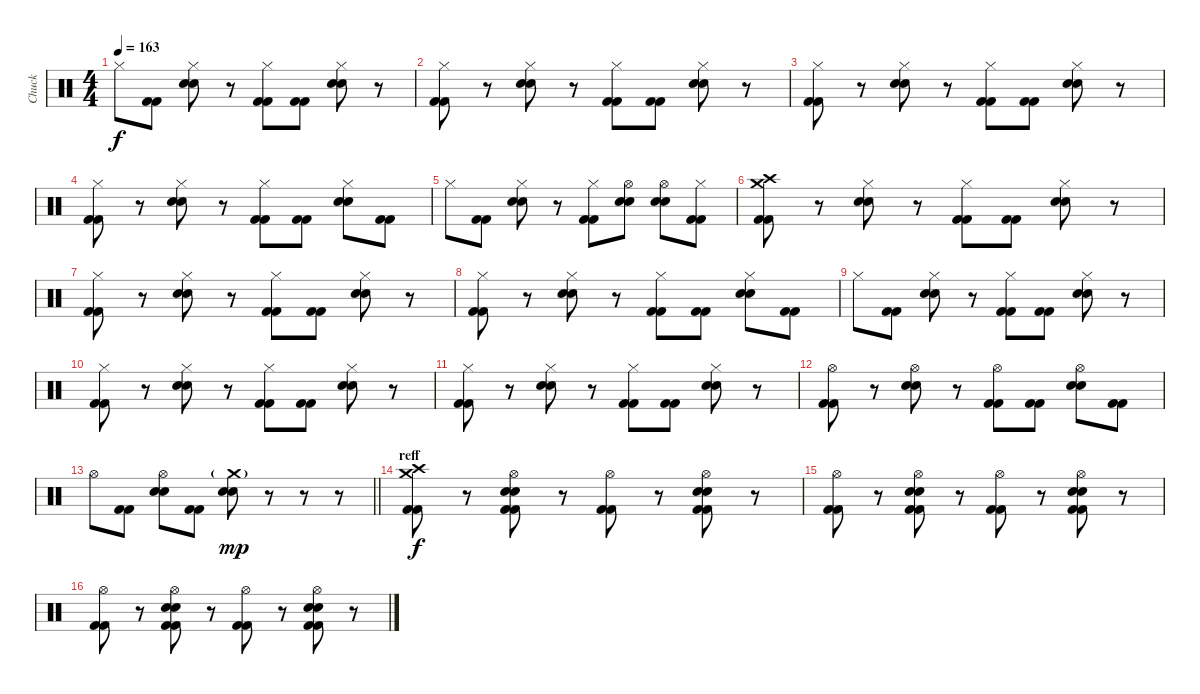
\track ("Chuck" "Chuck") {instrument percussion}
\staff {score}
\articulation defaults
\ts (4 4)
\tempo 163
\clef neutral
\ks c "Hi-Hat (closed)".8{dy f}
("Kick (hit) 2" "Kick (hit) 2").8 ("Hi-Hat (closed)" "Snare (hit) 2" "Snare (hit) 2").8 r.8 ("Hi-Hat (closed)" "Kick (hit) 2" "Kick (hit) 2").8 ("Kick (hit) 2" "Kick (hit) 2").8 ("Hi-Hat (closed)" "Snare (hit) 2" "Snare (hit) 2").8 r.8 |
("Hi-Hat (closed)" "Kick (hit) 2" "Kick (hit) 2").8 r.8 ("Hi-Hat (closed)" "Snare (hit) 2" "Snare (hit) 2").8 r.8 ("Hi-Hat (closed)" "Kick (hit) 2" "Kick (hit) 2").8 ("Kick (hit) 2" "Kick (hit) 2").8 ("Hi-Hat (closed)" "Snare (hit) 2" "Snare (hit) 2").8 r.8 |
("Hi-Hat (closed)" "Kick (hit) 2" "Kick (hit) 2").8 r.8 ("Hi-Hat (closed)" "Snare (hit) 2" "Snare (hit) 2").8 r.8 ("Hi-Hat (closed)" "Kick (hit) 2" "Kick (hit) 2").8 ("Kick (hit) 2" "Kick (hit) 2").8 ("Hi-Hat (closed)" "Snare (hit) 2" "Snare (hit) 2").8 r.8 |
("Hi-Hat (closed)" "Kick (hit) 2" "Kick (hit) 2").8 r.8 ("Hi-Hat (closed)" "Snare (hit) 2" "Snare (hit) 2").8 r.8 ("Hi-Hat (closed)" "Kick (hit) 2" "Kick (hit) 2").8 ("Kick (hit) 2" "Kick (hit) 2").8 ("Hi-Hat (closed)" "Snare (hit) 2" "Snare (hit) 2").8 ("Kick (hit) 2" "Kick (hit) 2").8 |
"Hi-Hat (closed)".8 ("Kick (hit) 2" "Kick (hit) 2").8 ("Hi-Hat (closed)" "Snare (hit) 2" "Snare (hit) 2").8 r.8 ("Hi-Hat (closed)" "Kick (hit) 2" "Kick (hit) 2").8 ("Hi-Hat (open)" "Snare (hit) 2" "Snare (hit) 2").8 ("Hi-Hat (open)" "Snare (hit) 2" "Snare (hit) 2").8 ("Hi-Hat (closed)" "Kick (hit) 2" "Kick (hit) 2").8 |
("Crash medium (hit)" "Crash high (hit)" "Kick (hit) 2" "Kick (hit) 2").8 r.8 ("Hi-Hat (closed)" "Snare (hit) 2" "Snare (hit) 2").8 r.8 ("Hi-Hat (closed)" "Kick (hit) 2" "Kick (hit) 2").8 ("Kick (hit) 2" "Kick (hit) 2").8 ("Hi-Hat (closed)" "Snare (hit) 2" "Snare (hit) 2").8 r.8 |
("Hi-Hat (closed)" "Kick (hit) 2" "Kick (hit) 2").8 r.8 ("Hi-Hat (closed)" "Snare (hit) 2" "Snare (hit) 2").8 r.8 ("Hi-Hat (closed)" "Kick (hit) 2" "Kick (hit) 2").8 ("Kick (hit) 2" "Kick (hit) 2").8 ("Hi-Hat (closed)" "Snare (hit) 2" "Snare (hit) 2").8 r.8 |
("Hi-Hat (closed)" "Kick (hit) 2" "Kick (hit) 2").8 r.8 ("Hi-Hat (closed)" "Snare (hit) 2" "Snare (hit) 2").8 r.8 ("Hi-Hat (closed)" "Kick (hit) 2" "Kick (hit) 2").8 ("Kick (hit) 2" "Kick (hit) 2").8 ("Hi-Hat (closed)" "Snare (hit) 2" "Snare (hit) 2").8 ("Kick (hit) 2" "Kick (hit) 2").8 |
"Hi-Hat (closed)".8 ("Kick (hit) 2" "Kick (hit) 2").8 ("Hi-Hat (closed)" "Snare (hit) 2" "Snare (hit) 2").8 r.8 ("Hi-Hat (closed)" "Kick (hit) 2" "Kick (hit) 2").8 ("Kick (hit) 2" "Kick (hit) 2").8 ("Hi-Hat (closed)" "Snare (hit) 2" "Snare (hit) 2").8 r.8 |
("Hi-Hat (closed)" "Kick (hit) 2" "Kick (hit) 2").8 r.8 ("Hi-Hat (closed)" "Snare (hit) 2" "Snare (hit) 2").8 r.8 ("Hi-Hat (closed)" "Kick (hit) 2" "Kick (hit) 2").8 ("Kick (hit) 2" "Kick (hit) 2").8 ("Hi-Hat (closed)" "Snare (hit) 2" "Snare (hit) 2").8 r.8 |
("Hi-Hat (closed)" "Kick (hit) 2" "Kick (hit) 2").8 r.8 ("Hi-Hat (closed)" "Snare (hit) 2" "Snare (hit) 2").8 r.8 ("Hi-Hat (closed)" "Kick (hit) 2" "Kick (hit) 2").8 ("Kick (hit) 2" "Kick (hit) 2").8 ("Hi-Hat (closed)" "Snare (hit) 2" "Snare (hit) 2").8 r.8 |
("Hi-Hat (open)" "Kick (hit) 2" "Kick (hit) 2").8 r.8 ("Hi-Hat (open)" "Snare (hit) 2" "Snare (hit) 2").8 r.8 ("Hi-Hat (open)" "Kick (hit) 2" "Kick (hit) 2").8 ("Kick (hit) 2" "Kick (hit) 2").8 ("Hi-Hat (open)" "Snare (hit) 2" "Snare (hit) 2").8 ("Kick (hit) 2" "Kick (hit) 2").8 |
\barLineRight lightlight "Hi-Hat (open)".8
("Kick (hit) 2" "Kick (hit) 2").8 ("Hi-Hat (open)" "Snare (hit) 2" "Snare (hit) 2").8 ("Kick (hit) 2" "Kick (hit) 2").8 ("Crash medium (hit)"{g} "Snare (hit) 2" "Snare (hit) 2").8{dy mp} r.8 r.8 r.8 |
\section ("" "reff")
("Crash medium (hit)" "Crash high (hit)" "Kick (hit) 2" "Kick (hit) 2").8{dy f} r.8 ("Hi-Hat (open)" "Snare (hit) 2" "Snare (hit) 2" "Kick (hit) 2" "Kick (hit) 2").8 r.8 ("Hi-Hat (open)" "Kick (hit) 2" "Kick (hit) 2").8 r.8 ("Hi-Hat (open)" "Snare (hit) 2" "Snare (hit) 2" "Kick (hit) 2" "Kick (hit) 2").8 r.8 |
("Hi-Hat (open)" "Kick (hit) 2" "Kick (hit) 2").8 r.8 ("Hi-Hat (open)" "Snare (hit) 2" "Snare (hit) 2" "Kick (hit) 2" "Kick (hit) 2").8 r.8 ("Hi-Hat (open)" "Kick (hit) 2" "Kick (hit) 2").8 r.8 ("Hi-Hat (open)" "Snare (hit) 2" "Snare (hit) 2" "Kick (hit) 2" "Kick (hit) 2").8 r.8 |
("Hi-Hat (open)" "Kick (hit) 2" "Kick (hit) 2").8 r.8 ("Hi-Hat (open)" "Snare (hit) 2" "Snare (hit) 2" "Kick (hit) 2" "Kick (hit) 2").8 r.8 ("Hi-Hat (open)" "Kick (hit) 2" "Kick (hit) 2").8 r.8 ("Hi-Hat (open)" "Snare (hit) 2" "Snare (hit) 2" "Kick (hit) 2" "Kick (hit) 2").8 r.8
